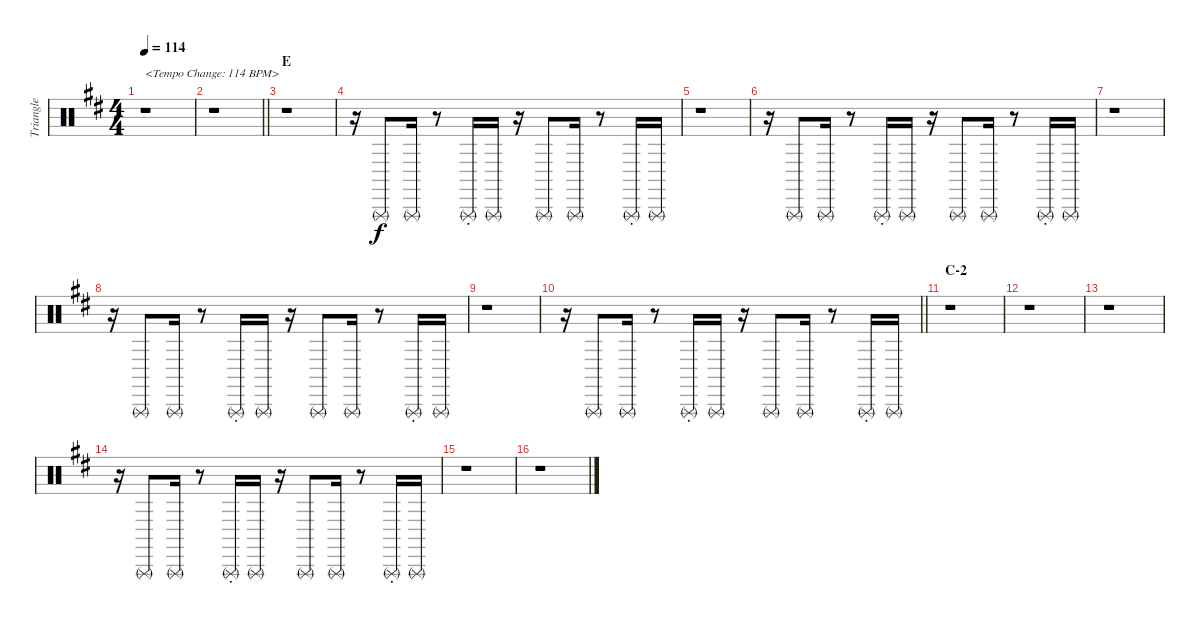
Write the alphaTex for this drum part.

\track ("Triangle" "Triangle") {instrument percussion}
\staff {score}
\articulation defaults
\ts (4 4)
\tempo 114
\clef neutral
\ks d
r.1{txt "<Tempo Change: 114 BPM>" dy f} |
\barLineRight lightlight
r.1 |
\section ("" "E")
r.1 |
r.16 "Triangle (rnute)".8 "Triangle (rnute)".16 r.8 "Triangle (rnute)"{st}.16 "Triangle (rnute)".16 r.16 "Triangle (rnute)".8 "Triangle (rnute)".16 r.8 "Triangle (rnute)"{st}.16 "Triangle (rnute)".16 |
r.1 |
r.16 "Triangle (rnute)".8 "Triangle (rnute)".16 r.8 "Triangle (rnute)"{st}.16 "Triangle (rnute)".16 r.16 "Triangle (rnute)".8 "Triangle (rnute)".16 r.8 "Triangle (rnute)"{st}.16 "Triangle (rnute)".16 |
r.1 |
r.16 "Triangle (rnute)".8 "Triangle (rnute)".16 r.8 "Triangle (rnute)"{st}.16 "Triangle (rnute)".16 r.16 "Triangle (rnute)".8 "Triangle (rnute)".16 r.8 "Triangle (rnute)"{st}.16 "Triangle (rnute)".16 |
r.1 |
\barLineRight lightlight
r.16 "Triangle (rnute)".8 "Triangle (rnute)".16 r.8 "Triangle (rnute)"{st}.16 "Triangle (rnute)".16 r.16 "Triangle (rnute)".8 "Triangle (rnute)".16 r.8 "Triangle (rnute)"{st}.16 "Triangle (rnute)".16 |
\section ("" "C-2")
r.1 |
r.1 |
r.1 |
r.16 "Triangle (rnute)".8 "Triangle (rnute)".16 r.8 "Triangle (rnute)"{st}.16 "Triangle (rnute)".16 r.16 "Triangle (rnute)".8 "Triangle (rnute)".16 r.8 "Triangle (rnute)"{st}.16 "Triangle (rnute)".16 |
r.1 |
r.1
